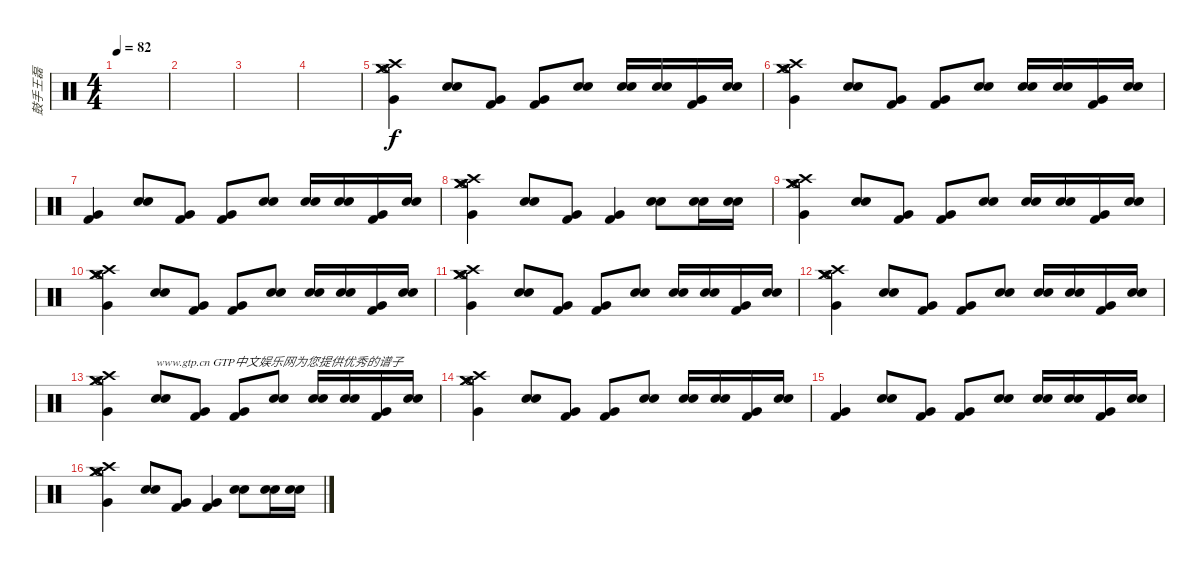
\track ("鼓手王磊" "鼓手王磊") {instrument percussion}
\staff {score}
\articulation defaults
\ts (4 4)
\tempo 82
\clef neutral
\ks c
|
|
|
|
("Crash medium (hit)" "Crash medium (hit)" "Very Low Tom (hit)" "Crash high (hit)" "Hi-Hat (open)" "Hi-Hat (open)").4 ("Electric Snare (hit)" "Electric Snare (hit)").8 ("Very Low Tom (hit)" "Kick (hit) 2").8 ("Very Low Tom (hit)" "Kick (hit) 2").8 ("Electric Snare (hit)" "Electric Snare (hit)").8 ("Electric Snare (hit)" "Electric Snare (hit)").16 ("Electric Snare (hit)" "Electric Snare (hit)").16 ("Very Low Tom (hit)" "Kick (hit) 2").16 ("Electric Snare (hit)" "Electric Snare (hit)").16 |
("Crash medium (hit)" "Crash medium (hit)" "Very Low Tom (hit)" "Crash high (hit)" "Hi-Hat (open)" "Hi-Hat (open)").4 ("Electric Snare (hit)" "Electric Snare (hit)").8 ("Very Low Tom (hit)" "Kick (hit) 2").8 ("Very Low Tom (hit)" "Kick (hit) 2").8 ("Electric Snare (hit)" "Electric Snare (hit)").8 ("Electric Snare (hit)" "Electric Snare (hit)").16 ("Electric Snare (hit)" "Electric Snare (hit)").16 ("Very Low Tom (hit)" "Kick (hit) 2").16 ("Electric Snare (hit)" "Electric Snare (hit)").16 |
("Very Low Tom (hit)" "Kick (hit) 2").4 ("Electric Snare (hit)" "Electric Snare (hit)").8 ("Very Low Tom (hit)" "Kick (hit) 2").8 ("Very Low Tom (hit)" "Kick (hit) 2").8 ("Electric Snare (hit)" "Electric Snare (hit)").8 ("Electric Snare (hit)" "Electric Snare (hit)").16 ("Electric Snare (hit)" "Electric Snare (hit)").16 ("Very Low Tom (hit)" "Kick (hit) 2").16 ("Electric Snare (hit)" "Electric Snare (hit)").16 |
("Crash medium (hit)" "Crash medium (hit)" "Very Low Tom (hit)" "Crash high (hit)" "Hi-Hat (open)" "Hi-Hat (open)").4 ("Electric Snare (hit)" "Electric Snare (hit)").8 ("Very Low Tom (hit)" "Kick (hit) 2").8 ("Very Low Tom (hit)" "Kick (hit) 2").4 ("Electric Snare (hit)" "Electric Snare (hit)").8 ("Electric Snare (hit)" "Electric Snare (hit)").16 ("Electric Snare (hit)" "Electric Snare (hit)").16 |
("Crash medium (hit)" "Crash medium (hit)" "Very Low Tom (hit)" "Crash high (hit)" "Hi-Hat (open)" "Hi-Hat (open)").4 ("Electric Snare (hit)" "Electric Snare (hit)").8 ("Very Low Tom (hit)" "Kick (hit) 2").8 ("Very Low Tom (hit)" "Kick (hit) 2").8 ("Electric Snare (hit)" "Electric Snare (hit)").8 ("Electric Snare (hit)" "Electric Snare (hit)").16 ("Electric Snare (hit)" "Electric Snare (hit)").16 ("Very Low Tom (hit)" "Kick (hit) 2").16 ("Electric Snare (hit)" "Electric Snare (hit)").16 |
("Crash medium (hit)" "Crash medium (hit)" "Very Low Tom (hit)" "Crash high (hit)" "Hi-Hat (open)" "Hi-Hat (open)").4 ("Electric Snare (hit)" "Electric Snare (hit)").8 ("Very Low Tom (hit)" "Kick (hit) 2").8 ("Very Low Tom (hit)" "Kick (hit) 2").8 ("Electric Snare (hit)" "Electric Snare (hit)").8 ("Electric Snare (hit)" "Electric Snare (hit)").16 ("Electric Snare (hit)" "Electric Snare (hit)").16 ("Very Low Tom (hit)" "Kick (hit) 2").16 ("Electric Snare (hit)" "Electric Snare (hit)").16 |
("Crash medium (hit)" "Crash medium (hit)" "Very Low Tom (hit)" "Crash high (hit)" "Hi-Hat (open)" "Hi-Hat (open)").4 ("Electric Snare (hit)" "Electric Snare (hit)").8 ("Very Low Tom (hit)" "Kick (hit) 2").8 ("Very Low Tom (hit)" "Kick (hit) 2").8 ("Electric Snare (hit)" "Electric Snare (hit)").8 ("Electric Snare (hit)" "Electric Snare (hit)").16 ("Electric Snare (hit)" "Electric Snare (hit)").16 ("Very Low Tom (hit)" "Kick (hit) 2").16 ("Electric Snare (hit)" "Electric Snare (hit)").16 |
("Crash medium (hit)" "Crash medium (hit)" "Very Low Tom (hit)" "Crash high (hit)" "Hi-Hat (open)" "Hi-Hat (open)").4 ("Electric Snare (hit)" "Electric Snare (hit)").8 ("Very Low Tom (hit)" "Kick (hit) 2").8 ("Very Low Tom (hit)" "Kick (hit) 2").8 ("Electric Snare (hit)" "Electric Snare (hit)").8 ("Electric Snare (hit)" "Electric Snare (hit)").16 ("Electric Snare (hit)" "Electric Snare (hit)").16 ("Very Low Tom (hit)" "Kick (hit) 2").16 ("Electric Snare (hit)" "Electric Snare (hit)").16 |
("Crash medium (hit)" "Crash medium (hit)" "Very Low Tom (hit)" "Crash high (hit)" "Hi-Hat (open)" "Hi-Hat (open)").4 ("Electric Snare (hit)" "Electric Snare (hit)").8{txt "www.gtp.cn GTP中文娱乐网为您提供优秀的谱子"} ("Very Low Tom (hit)" "Kick (hit) 2").8 ("Very Low Tom (hit)" "Kick (hit) 2").8 ("Electric Snare (hit)" "Electric Snare (hit)").8 ("Electric Snare (hit)" "Electric Snare (hit)").16 ("Electric Snare (hit)" "Electric Snare (hit)").16 ("Very Low Tom (hit)" "Kick (hit) 2").16 ("Electric Snare (hit)" "Electric Snare (hit)").16 |
("Crash medium (hit)" "Crash medium (hit)" "Very Low Tom (hit)" "Crash high (hit)" "Hi-Hat (open)" "Hi-Hat (open)").4 ("Electric Snare (hit)" "Electric Snare (hit)").8 ("Very Low Tom (hit)" "Kick (hit) 2").8 ("Very Low Tom (hit)" "Kick (hit) 2").8 ("Electric Snare (hit)" "Electric Snare (hit)").8 ("Electric Snare (hit)" "Electric Snare (hit)").16 ("Electric Snare (hit)" "Electric Snare (hit)").16 ("Very Low Tom (hit)" "Kick (hit) 2").16 ("Electric Snare (hit)" "Electric Snare (hit)").16 |
("Very Low Tom (hit)" "Kick (hit) 2").4 ("Electric Snare (hit)" "Electric Snare (hit)").8 ("Very Low Tom (hit)" "Kick (hit) 2").8 ("Very Low Tom (hit)" "Kick (hit) 2").8 ("Electric Snare (hit)" "Electric Snare (hit)").8 ("Electric Snare (hit)" "Electric Snare (hit)").16 ("Electric Snare (hit)" "Electric Snare (hit)").16 ("Very Low Tom (hit)" "Kick (hit) 2").16 ("Electric Snare (hit)" "Electric Snare (hit)").16 |
("Crash medium (hit)" "Crash medium (hit)" "Very Low Tom (hit)" "Crash high (hit)" "Hi-Hat (open)" "Hi-Hat (open)").4 ("Electric Snare (hit)" "Electric Snare (hit)").8 ("Very Low Tom (hit)" "Kick (hit) 2").8 ("Very Low Tom (hit)" "Kick (hit) 2").4 ("Electric Snare (hit)" "Electric Snare (hit)").8 ("Electric Snare (hit)" "Electric Snare (hit)").16 ("Electric Snare (hit)" "Electric Snare (hit)").16
